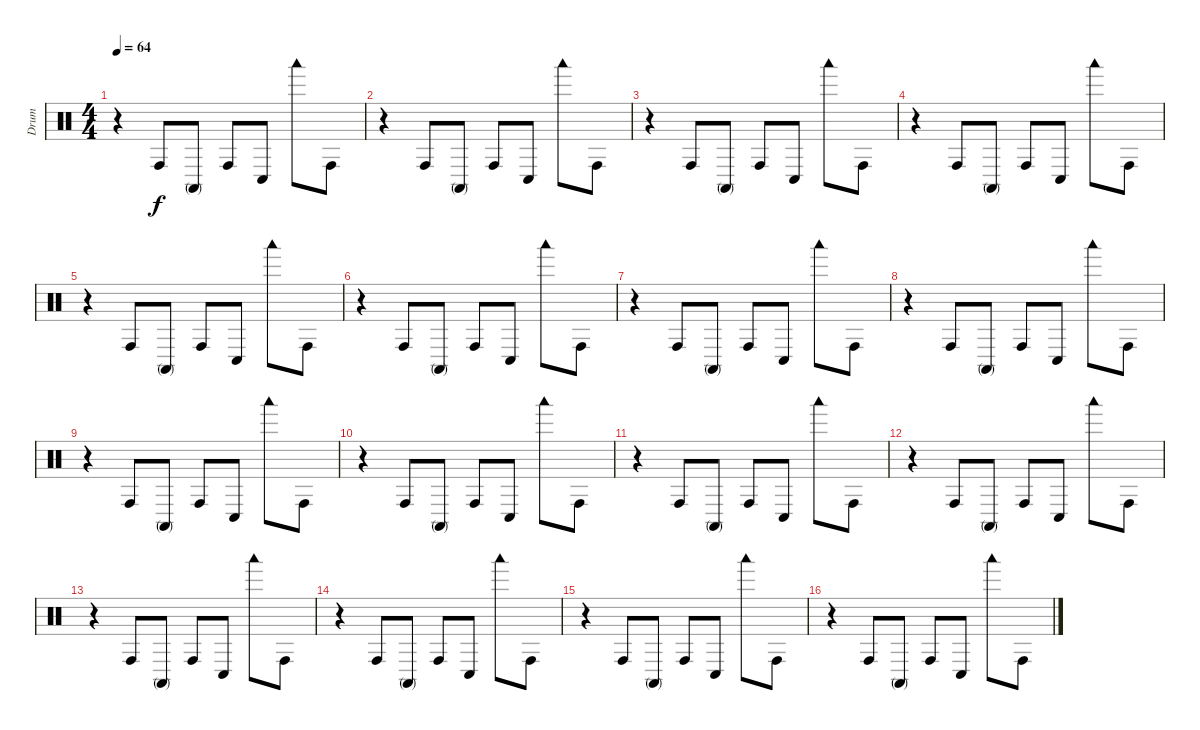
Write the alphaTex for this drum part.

\track ("Drum" "Drum") {instrument percussion}
\staff {score}
\articulation defaults
\ts (4 4)
\tempo 64
\clef neutral
\ks c
r.4{dy f} "Conga high (hit)".8 "Conga high (mute)".8 "Conga high (hit)".8 "Conga low (hit)".8 "Woodblock low (hit)".8 "Conga high (hit)".8 |
r.4 "Conga high (hit)".8 "Conga high (mute)".8 "Conga high (hit)".8 "Conga low (hit)".8 "Woodblock low (hit)".8 "Conga high (hit)".8 |
r.4 "Conga high (hit)".8 "Conga high (mute)".8 "Conga high (hit)".8 "Conga low (hit)".8 "Woodblock low (hit)".8 "Conga high (hit)".8 |
r.4 "Conga high (hit)".8 "Conga high (mute)".8 "Conga high (hit)".8 "Conga low (hit)".8 "Woodblock low (hit)".8 "Conga high (hit)".8 |
r.4 "Conga high (hit)".8 "Conga high (mute)".8 "Conga high (hit)".8 "Conga low (hit)".8 "Woodblock low (hit)".8 "Conga high (hit)".8 |
r.4 "Conga high (hit)".8 "Conga high (mute)".8 "Conga high (hit)".8 "Conga low (hit)".8 "Woodblock low (hit)".8 "Conga high (hit)".8 |
r.4 "Conga high (hit)".8 "Conga high (mute)".8 "Conga high (hit)".8 "Conga low (hit)".8 "Woodblock low (hit)".8 "Conga high (hit)".8 |
r.4 "Conga high (hit)".8 "Conga high (mute)".8 "Conga high (hit)".8 "Conga low (hit)".8 "Woodblock low (hit)".8 "Conga high (hit)".8 |
r.4 "Conga high (hit)".8 "Conga high (mute)".8 "Conga high (hit)".8 "Conga low (hit)".8 "Woodblock low (hit)".8 "Conga high (hit)".8 |
r.4 "Conga high (hit)".8 "Conga high (mute)".8 "Conga high (hit)".8 "Conga low (hit)".8 "Woodblock low (hit)".8 "Conga high (hit)".8 |
r.4 "Conga high (hit)".8 "Conga high (mute)".8 "Conga high (hit)".8 "Conga low (hit)".8 "Woodblock low (hit)".8 "Conga high (hit)".8 |
r.4 "Conga high (hit)".8 "Conga high (mute)".8 "Conga high (hit)".8 "Conga low (hit)".8 "Woodblock low (hit)".8 "Conga high (hit)".8 |
r.4 "Conga high (hit)".8 "Conga high (mute)".8 "Conga high (hit)".8 "Conga low (hit)".8 "Woodblock low (hit)".8 "Conga high (hit)".8 |
r.4 "Conga high (hit)".8 "Conga high (mute)".8 "Conga high (hit)".8 "Conga low (hit)".8 "Woodblock low (hit)".8 "Conga high (hit)".8 |
r.4 "Conga high (hit)".8 "Conga high (mute)".8 "Conga high (hit)".8 "Conga low (hit)".8 "Woodblock low (hit)".8 "Conga high (hit)".8 |
r.4 "Conga high (hit)".8 "Conga high (mute)".8 "Conga high (hit)".8 "Conga low (hit)".8 "Woodblock low (hit)".8 "Conga high (hit)".8
